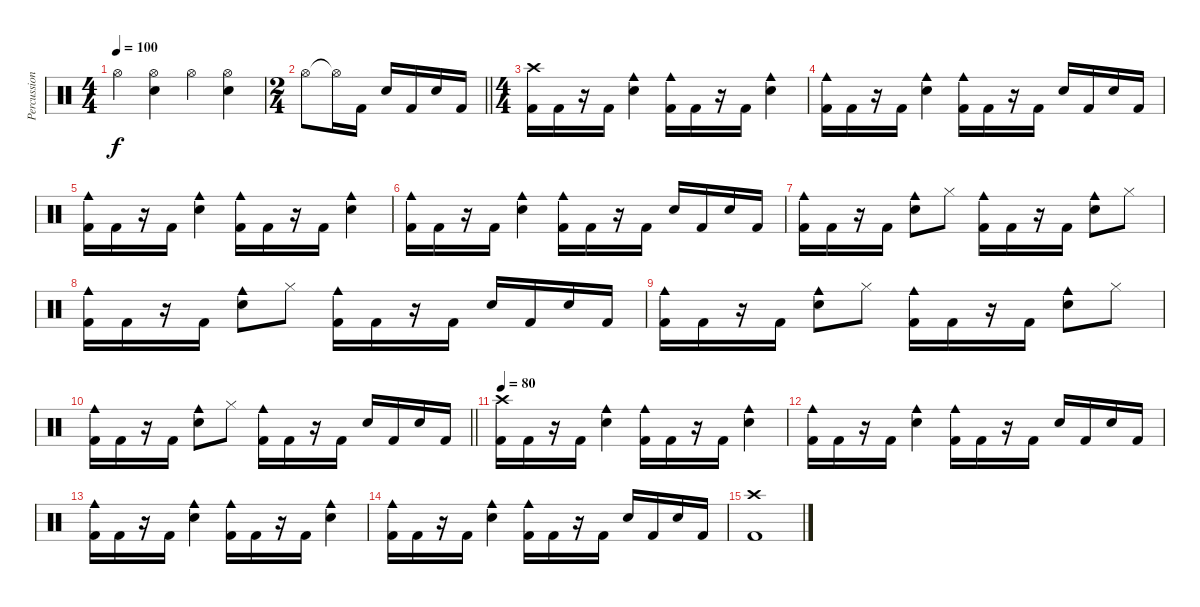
\track ("Percussion" "Percussion") {instrument percussion}
\staff {score}
\articulation defaults
\ts (4 4)
\tempo 100
\clef neutral
\ks c "Hi-Hat (open)".4{dy f}
("Hi-Hat (open)" "Snare (hit) 2").4 "Hi-Hat (open)".4 ("Hi-Hat (open)" "Snare (hit) 2").4 |
\ts (2 4)
\barLineRight lightlight "Hi-Hat (open)".8 "Hi-Hat (open)"{t}.16 "Kick (hit) 2".16 "Snare (hit) 2".16 "Kick (hit) 2".16 "Snare (hit) 2".16 "Kick (hit) 2".16
|
\ts (4 4)
("Crash high (hit)" "Kick (hit) 2").16 "Kick (hit) 2".16 r.16 "Kick (hit) 2".16 ("Cowbell medium (hit)" "Snare (hit) 2").4 ("Cowbell medium (hit)" "Kick (hit) 2").16 "Kick (hit) 2".16 r.16 "Kick (hit) 2".16 ("Cowbell medium (hit)" "Snare (hit) 2").4 |
("Cowbell medium (hit)" "Kick (hit) 2").16 "Kick (hit) 2".16 r.16 "Kick (hit) 2".16 ("Cowbell medium (hit)" "Snare (hit) 2").4 ("Cowbell medium (hit)" "Kick (hit) 2").16 "Kick (hit) 2".16 r.16 "Kick (hit) 2".16 "Snare (hit) 2".16 "Kick (hit) 2".16 "Snare (hit) 2".16 "Kick (hit) 2".16 |
("Cowbell medium (hit)" "Kick (hit) 2").16 "Kick (hit) 2".16 r.16 "Kick (hit) 2".16 ("Cowbell medium (hit)" "Snare (hit) 2").4 ("Cowbell medium (hit)" "Kick (hit) 2").16 "Kick (hit) 2".16 r.16 "Kick (hit) 2".16 ("Cowbell medium (hit)" "Snare (hit) 2").4 |
("Cowbell medium (hit)" "Kick (hit) 2").16 "Kick (hit) 2".16 r.16 "Kick (hit) 2".16 ("Cowbell medium (hit)" "Snare (hit) 2").4 ("Cowbell medium (hit)" "Kick (hit) 2").16 "Kick (hit) 2".16 r.16 "Kick (hit) 2".16 "Snare (hit) 2".16 "Kick (hit) 2".16 "Snare (hit) 2".16 "Kick (hit) 2".16 |
("Cowbell medium (hit)" "Kick (hit) 2").16 "Kick (hit) 2".16 r.16 "Kick (hit) 2".16 ("Cowbell medium (hit)" "Snare (hit) 2").8 "Hi-Hat (closed)".8 ("Cowbell medium (hit)" "Kick (hit) 2").16 "Kick (hit) 2".16 r.16 "Kick (hit) 2".16 ("Cowbell medium (hit)" "Snare (hit) 2").8 "Hi-Hat (closed)".8 |
("Cowbell medium (hit)" "Kick (hit) 2").16 "Kick (hit) 2".16 r.16 "Kick (hit) 2".16 ("Cowbell medium (hit)" "Snare (hit) 2").8 "Hi-Hat (closed)".8 ("Cowbell medium (hit)" "Kick (hit) 2").16 "Kick (hit) 2".16 r.16 "Kick (hit) 2".16 "Snare (hit) 2".16 "Kick (hit) 2".16 "Snare (hit) 2".16 "Kick (hit) 2".16 |
("Cowbell medium (hit)" "Kick (hit) 2").16 "Kick (hit) 2".16 r.16 "Kick (hit) 2".16 ("Cowbell medium (hit)" "Snare (hit) 2").8 "Hi-Hat (closed)".8 ("Cowbell medium (hit)" "Kick (hit) 2").16 "Kick (hit) 2".16 r.16 "Kick (hit) 2".16 ("Cowbell medium (hit)" "Snare (hit) 2").8 "Hi-Hat (closed)".8 |
\barLineRight lightlight
("Cowbell medium (hit)" "Kick (hit) 2").16 "Kick (hit) 2".16 r.16 "Kick (hit) 2".16 ("Cowbell medium (hit)" "Snare (hit) 2").8 "Hi-Hat (closed)".8 ("Cowbell medium (hit)" "Kick (hit) 2").16 "Kick (hit) 2".16 r.16 "Kick (hit) 2".16 "Snare (hit) 2".16 "Kick (hit) 2".16 "Snare (hit) 2".16 "Kick (hit) 2".16 |
\tempo 80
("Crash high (hit)" "Kick (hit) 2").16 "Kick (hit) 2".16 r.16 "Kick (hit) 2".16 ("Cowbell medium (hit)" "Snare (hit) 2").4 ("Cowbell medium (hit)" "Kick (hit) 2").16 "Kick (hit) 2".16 r.16 "Kick (hit) 2".16 ("Cowbell medium (hit)" "Snare (hit) 2").4 |
("Cowbell medium (hit)" "Kick (hit) 2").16 "Kick (hit) 2".16 r.16 "Kick (hit) 2".16 ("Cowbell medium (hit)" "Snare (hit) 2").4 ("Cowbell medium (hit)" "Kick (hit) 2").16 "Kick (hit) 2".16 r.16 "Kick (hit) 2".16 "Snare (hit) 2".16 "Kick (hit) 2".16 "Snare (hit) 2".16 "Kick (hit) 2".16 |
("Cowbell medium (hit)" "Kick (hit) 2").16 "Kick (hit) 2".16 r.16 "Kick (hit) 2".16 ("Cowbell medium (hit)" "Snare (hit) 2").4 ("Cowbell medium (hit)" "Kick (hit) 2").16 "Kick (hit) 2".16 r.16 "Kick (hit) 2".16 ("Cowbell medium (hit)" "Snare (hit) 2").4 |
("Cowbell medium (hit)" "Kick (hit) 2").16 "Kick (hit) 2".16 r.16 "Kick (hit) 2".16 ("Cowbell medium (hit)" "Snare (hit) 2").4 ("Cowbell medium (hit)" "Kick (hit) 2").16 "Kick (hit) 2".16 r.16 "Kick (hit) 2".16 "Snare (hit) 2".16 "Kick (hit) 2".16 "Snare (hit) 2".16 "Kick (hit) 2".16 |
("Crash high (hit)" "Kick (hit) 2").1
